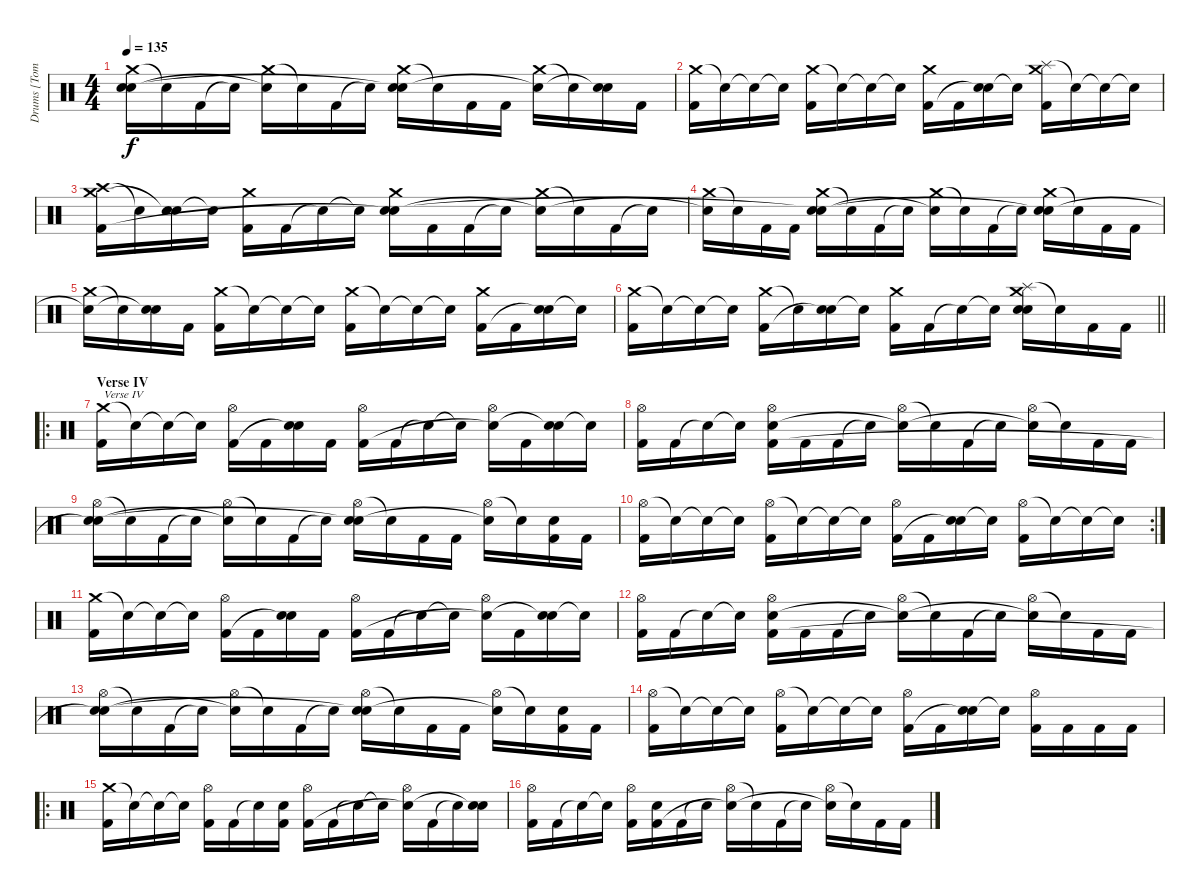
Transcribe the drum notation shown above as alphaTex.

\track ("Drums [Tomas Haake]" "Drums [Tom") {instrument percussion}
\staff {score}
\articulation defaults
\ts (4 4)
\tempo 135
\clef neutral
\ks c
("Crash medium (hit)" "Electric Snare (hit)" "Snare (hit)"{t}).16{dy f} "Snare (hit)"{t}.16 "Kick (hit) 2".16 "Snare (hit)"{t}.16 ("Crash medium (hit)" "Snare (hit)"{t}).16 "Snare (hit)"{t}.16 "Kick (hit) 2".16 "Snare (hit)"{t}.16 ("Crash medium (hit)" "Electric Snare (hit)" "Snare (hit)"{t}).16 "Snare (hit)"{t}.16 "Kick (hit) 2".16 "Kick (hit) 2".16 ("Crash medium (hit)" "Snare (hit)"{t}).16 "Snare (hit)"{t}.16 ("Electric Snare (hit)" "Snare (hit)"{t}).16 "Kick (hit) 2".16 |
("Crash medium (hit)" "Kick (hit) 2").16 "Snare (hit)"{t}.16 "Snare (hit)"{t}.16 "Snare (hit)"{t}.16 ("Crash medium (hit)" "Kick (hit) 2").16 "Snare (hit)"{t}.16 "Snare (hit)"{t}.16 "Snare (hit)"{t}.16 ("Crash medium (hit)" "Kick (hit) 2").16 "Kick (hit) 2".16 ("Electric Snare (hit)" "Snare (hit)"{t}).16 "Snare (hit)"{t}.16 ("Splash (hit)" "Crash medium (hit)" "Kick (hit) 2").16 "Snare (hit)"{t}.16 "Snare (hit)"{t}.16 "Snare (hit)"{t}.16 |
("Crash high (hit)" "Crash medium (hit)" "Kick (hit) 2").16 "Snare (hit)"{t}.16 ("Electric Snare (hit)" "Snare (hit)"{t}).16 "Snare (hit)"{t}.16 ("Crash medium (hit)" "Kick (hit) 2").16 "Kick (hit) 2".16 "Snare (hit)"{t}.16 "Snare (hit)"{t}.16 ("Crash medium (hit)" "Electric Snare (hit)" "Snare (hit)"{t}).16 "Kick (hit) 2".16 "Kick (hit) 2".16 "Snare (hit)"{t}.16 ("Crash medium (hit)" "Snare (hit)"{t}).16 "Snare (hit)"{t}.16 "Kick (hit) 2".16 "Snare (hit)"{t}.16 |
("Crash medium (hit)" "Snare (hit)"{t}).16 "Snare (hit)"{t}.16 "Kick (hit) 2".16 "Kick (hit) 2".16 ("Crash medium (hit)" "Electric Snare (hit)" "Snare (hit)"{t}).16 "Snare (hit)"{t}.16 "Kick (hit) 2".16 "Snare (hit)"{t}.16 ("Crash medium (hit)" "Snare (hit)"{t}).16 "Snare (hit)"{t}.16 "Kick (hit) 2".16 "Snare (hit)"{t}.16 ("Crash medium (hit)" "Electric Snare (hit)" "Snare (hit)"{t}).16 "Snare (hit)"{t}.16 "Kick (hit) 2".16 "Kick (hit) 2".16 |
("Crash medium (hit)" "Snare (hit)"{t}).16 "Snare (hit)"{t}.16 ("Electric Snare (hit)" "Snare (hit)"{t}).16 "Kick (hit) 2".16 ("Crash medium (hit)" "Kick (hit) 2").16 "Snare (hit)"{t}.16 "Snare (hit)"{t}.16 "Snare (hit)"{t}.16 ("Crash medium (hit)" "Kick (hit) 2").16 "Snare (hit)"{t}.16 "Snare (hit)"{t}.16 "Snare (hit)"{t}.16 ("Crash medium (hit)" "Kick (hit) 2").16 "Kick (hit) 2".16 ("Electric Snare (hit)" "Snare (hit)"{t}).16 "Snare (hit)"{t}.16 |
\barLineRight lightlight
("Crash medium (hit)" "Kick (hit) 2").16 "Snare (hit)"{t}.16 "Snare (hit)"{t}.16 "Snare (hit)"{t}.16 ("Crash medium (hit)" "Kick (hit) 2").16 "Snare (hit)"{t}.16 ("Electric Snare (hit)" "Snare (hit)"{t}).16 "Snare (hit)"{t}.16 ("Crash medium (hit)" "Kick (hit) 2").16 "Kick (hit) 2".16 "Snare (hit)"{t}.16 "Snare (hit)"{t}.16 ("Splash (hit)" "Crash medium (hit)" "Electric Snare (hit)" "Snare (hit)").16 "Snare (hit)"{t}.16 "Kick (hit) 2".16 "Kick (hit) 2".16 |
\ro
\section ("" "Verse IV")
("Crash medium (hit)" "Kick (hit) 2").16{txt "Verse IV"} "Snare (hit)"{t}.16 "Snare (hit)"{t}.16 "Snare (hit)"{t}.16 ("Hi-Hat (open)" "Kick (hit) 2").16 "Kick (hit) 2".16 ("Electric Snare (hit)" "Snare (hit)"{t}).16 "Kick (hit) 2".16 ("Hi-Hat (open)" "Kick (hit) 2").16 "Kick (hit) 2".16 "Snare (hit)"{t}.16 "Snare (hit)"{t}.16 ("Hi-Hat (open)" "Snare (hit)"{t}).16 "Kick (hit) 2".16 ("Electric Snare (hit)" "Snare (hit)"{t}).16 "Snare (hit)"{t}.16 |
("Hi-Hat (open)" "Kick (hit) 2").16 "Kick (hit) 2".16 "Snare (hit)"{t}.16 "Snare (hit)"{t}.16 ("Hi-Hat (open)" "Electric Snare (hit)" "Kick (hit) 2").16 "Kick (hit) 2".16 "Kick (hit) 2".16 "Snare (hit)"{t}.16 ("Hi-Hat (open)" "Snare (hit)"{t}).16 "Snare (hit)"{t}.16 "Kick (hit) 2".16 "Snare (hit)"{t}.16 ("Hi-Hat (open)" "Snare (hit)"{t}).16 "Snare (hit)"{t}.16 "Kick (hit) 2".16 "Kick (hit) 2".16 |
("Hi-Hat (open)" "Electric Snare (hit)" "Snare (hit)"{t}).16 "Snare (hit)"{t}.16 "Kick (hit) 2".16 "Snare (hit)"{t}.16 ("Hi-Hat (open)" "Snare (hit)"{t}).16 "Snare (hit)"{t}.16 "Kick (hit) 2".16 "Snare (hit)"{t}.16 ("Hi-Hat (open)" "Electric Snare (hit)" "Snare (hit)"{t}).16 "Snare (hit)"{t}.16 "Kick (hit) 2".16 "Kick (hit) 2".16 ("Hi-Hat (open)" "Snare (hit)"{t}).16 "Snare (hit)"{t}.16 ("Electric Snare (hit)" "Kick (hit) 2").16 "Kick (hit) 2".16 |
\rc 2
("Hi-Hat (open)" "Kick (hit) 2").16 "Snare (hit)"{t}.16 "Snare (hit)"{t}.16 "Snare (hit)"{t}.16 ("Hi-Hat (open)" "Kick (hit) 2").16 "Snare (hit)"{t}.16 "Snare (hit)"{t}.16 "Snare (hit)"{t}.16 ("Hi-Hat (open)" "Kick (hit) 2").16 "Kick (hit) 2".16 ("Electric Snare (hit)" "Snare (hit)"{t}).16 "Snare (hit)"{t}.16 ("Hi-Hat (open)" "Kick (hit) 2").16 "Snare (hit)"{t}.16 "Snare (hit)"{t}.16 "Snare (hit)"{t}.16 |
("Crash medium (hit)" "Kick (hit) 2").16 "Snare (hit)"{t}.16 "Snare (hit)"{t}.16 "Snare (hit)"{t}.16 ("Hi-Hat (open)" "Kick (hit) 2").16 "Kick (hit) 2".16 ("Electric Snare (hit)" "Snare (hit)"{t}).16 "Kick (hit) 2".16 ("Hi-Hat (open)" "Kick (hit) 2").16 "Kick (hit) 2".16 "Snare (hit)"{t}.16 "Snare (hit)"{t}.16 ("Hi-Hat (open)" "Snare (hit)"{t}).16 "Kick (hit) 2".16 ("Electric Snare (hit)" "Snare (hit)"{t}).16 "Snare (hit)"{t}.16 |
("Hi-Hat (open)" "Kick (hit) 2").16 "Kick (hit) 2".16 "Snare (hit)"{t}.16 "Snare (hit)"{t}.16 ("Hi-Hat (open)" "Electric Snare (hit)" "Kick (hit) 2").16 "Kick (hit) 2".16 "Kick (hit) 2".16 "Snare (hit)"{t}.16 ("Hi-Hat (open)" "Snare (hit)"{t}).16 "Snare (hit)"{t}.16 "Kick (hit) 2".16 "Snare (hit)"{t}.16 ("Hi-Hat (open)" "Snare (hit)"{t}).16 "Snare (hit)"{t}.16 "Kick (hit) 2".16 "Kick (hit) 2".16 |
("Hi-Hat (open)" "Electric Snare (hit)" "Snare (hit)"{t}).16 "Snare (hit)"{t}.16 "Kick (hit) 2".16 "Snare (hit)"{t}.16 ("Hi-Hat (open)" "Snare (hit)"{t}).16 "Snare (hit)"{t}.16 "Kick (hit) 2".16 "Snare (hit)"{t}.16 ("Hi-Hat (open)" "Electric Snare (hit)" "Snare (hit)"{t}).16 "Snare (hit)"{t}.16 "Kick (hit) 2".16 "Kick (hit) 2".16 ("Hi-Hat (open)" "Snare (hit)"{t}).16 "Snare (hit)"{t}.16 ("Electric Snare (hit)" "Kick (hit) 2").16 "Kick (hit) 2".16 |
("Hi-Hat (open)" "Kick (hit) 2").16 "Snare (hit)"{t}.16 "Snare (hit)"{t}.16 "Snare (hit)"{t}.16 ("Hi-Hat (open)" "Kick (hit) 2").16 "Snare (hit)"{t}.16 "Snare (hit)"{t}.16 "Snare (hit)"{t}.16 ("Hi-Hat (open)" "Kick (hit) 2").16 "Kick (hit) 2".16 ("Electric Snare (hit)" "Snare (hit)"{t}).16 "Snare (hit)"{t}.16 ("Hi-Hat (open)" "Kick (hit) 2").16 "Kick (hit) 2".16 "Kick (hit) 2".16 "Kick (hit) 2".16 |
\ro
("Crash medium (hit)" "Kick (hit) 2").16 "Snare (hit)"{t}.16 "Snare (hit)"{t}.16 "Snare (hit)"{t}.16 ("Hi-Hat (open)" "Kick (hit) 2").16 "Kick (hit) 2".16 "Snare (hit)"{t}.16 ("Electric Snare (hit)" "Kick (hit) 2").16 ("Hi-Hat (open)" "Kick (hit) 2").16 "Kick (hit) 2".16 "Snare (hit)"{t}.16 "Snare (hit)"{t}.16 ("Hi-Hat (open)" "Snare (hit)"{t}).16 "Kick (hit) 2".16 "Snare (hit)"{t}.16 ("Electric Snare (hit)" "Snare (hit)"{t}).16 |
("Hi-Hat (open)" "Kick (hit) 2").16 "Kick (hit) 2".16 "Snare (hit)"{t}.16 "Snare (hit)"{t}.16 ("Hi-Hat (open)" "Kick (hit) 2").16 ("Electric Snare (hit)" "Kick (hit) 2").16 "Kick (hit) 2".16 "Snare (hit)"{t}.16 ("Hi-Hat (open)" "Snare (hit)"{t}).16 "Snare (hit)"{t}.16 "Kick (hit) 2".16 "Snare (hit)"{t}.16 ("Hi-Hat (open)" "Snare (hit)"{t}).16 "Snare (hit)"{t}.16 "Kick (hit) 2".16 "Kick (hit) 2".16
